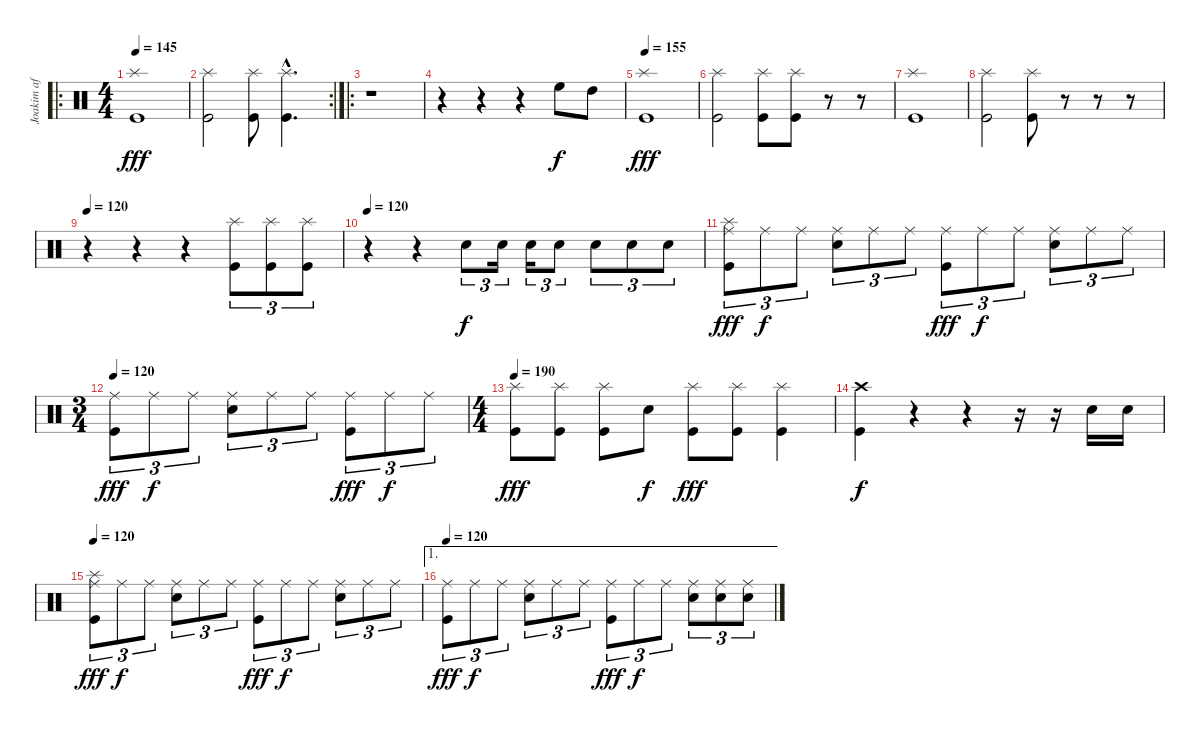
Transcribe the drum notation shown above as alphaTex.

\track ("Joakim af Grave" "Joakim af ") {instrument percussion}
\staff {score}
\articulation defaults
\ro
\ts (4 4)
\tempo 145
\clef neutral
\ks c
("Splash (hit)" "Kick (hit)").1{dy fff} |
\rc 2
("Splash (hit)" "Kick (hit)").2 ("Splash (hit)" "Kick (hit)").8 ("Splash (hit)"{hac} "Kick (hit)"{hac}).4{d} |
\ro
r.1 |
r.4 r.4 r.4 "High Floor Tom (hit)".8{dy f} "High Tom (hit)".8 |
\tempo 155
("Splash (hit)" "Kick (hit)").1{dy fff} |
("Splash (hit)" "Kick (hit)").2 ("Splash (hit)" "Kick (hit)").8 ("Splash (hit)" "Kick (hit)").8 r.8 r.8 |
("Splash (hit)" "Kick (hit)").1 |
("Splash (hit)" "Kick (hit)").2 ("Splash (hit)" "Kick (hit)").8 r.8 r.8 r.8 |
\tempo 120
r.4 r.4 r.4 ("Splash (hit)" "Kick (hit)").8{tu (3 2)} ("Splash (hit)" "Kick (hit)").8{tu (3 2)} ("Splash (hit)" "Kick (hit)").8{tu (3 2)} |
\tempo 120
r.4 r.4 "Electric Snare (hit)".8{tu (3 2) dy f} "Electric Snare (hit)".16{tu (3 2)} "Electric Snare (hit)".16{tu (3 2)} "Electric Snare (hit)".8{tu (3 2)} "Electric Snare (hit)".8{tu (3 2)} "Electric Snare (hit)".8{tu (3 2)} "Electric Snare (hit)".8{tu (3 2)} |
("Splash (hit)" "Ride (middle)" "Kick (hit)").8{tu (3 2) dy fff} "Ride (middle)".8{tu (3 2) dy f} "Ride (middle)".8{tu (3 2)} ("Electric Snare (hit)" "Ride (middle)").8{tu (3 2)} "Ride (middle)".8{tu (3 2)} "Ride (middle)".8{tu (3 2)} ("Ride (middle)" "Kick (hit)").8{tu (3 2) dy fff} "Ride (middle)".8{tu (3 2) dy f} "Ride (middle)".8{tu (3 2)} ("Electric Snare (hit)" "Ride (middle)").8{tu (3 2)} "Ride (middle)".8{tu (3 2)} "Ride (middle)".8{tu (3 2)} |
\ts (3 4)
\tempo 120
("Ride (middle)" "Kick (hit)").8{tu (3 2) dy fff} "Ride (middle)".8{tu (3 2) dy f} "Ride (middle)".8{tu (3 2)} ("Electric Snare (hit)" "Ride (middle)").8{tu (3 2)} "Ride (middle)".8{tu (3 2)} "Ride (middle)".8{tu (3 2)} ("Ride (middle)" "Kick (hit)").8{tu (3 2) dy fff} "Ride (middle)".8{tu (3 2) dy f} "Ride (middle)".8{tu (3 2)} |
\ts (4 4)
\tempo 190
("Splash (hit)" "Kick (hit)").8{dy fff} ("Splash (hit)" "Kick (hit)").8 ("Splash (hit)" "Kick (hit)").8 "Snare (hit)".8{dy f} ("Splash (hit)" "Kick (hit)").8{dy fff} ("Splash (hit)" "Kick (hit)").8 ("Splash (hit)" "Kick (hit)").4 |
("Crash high (hit)" "Kick (hit)").4{dy f} r.4 r.4 r.16 r.16 "Electric Snare (hit)".16 "Electric Snare (hit)".16 |
\tempo 120
("Splash (hit)" "Ride (middle)" "Kick (hit)").8{tu (3 2) dy fff} "Ride (middle)".8{tu (3 2) dy f} "Ride (middle)".8{tu (3 2)} ("Electric Snare (hit)" "Ride (middle)").8{tu (3 2)} "Ride (middle)".8{tu (3 2)} "Ride (middle)".8{tu (3 2)} ("Ride (middle)" "Kick (hit)").8{tu (3 2) dy fff} "Ride (middle)".8{tu (3 2) dy f} "Ride (middle)".8{tu (3 2)} ("Electric Snare (hit)" "Ride (middle)").8{tu (3 2)} "Ride (middle)".8{tu (3 2)} "Ride (middle)".8{tu (3 2)} |
\ae 1
\tempo 120
("Ride (middle)" "Kick (hit)").8{tu (3 2) dy fff} "Ride (middle)".8{tu (3 2) dy f} "Ride (middle)".8{tu (3 2)} ("Electric Snare (hit)" "Ride (middle)").8{tu (3 2)} "Ride (middle)".8{tu (3 2)} "Ride (middle)".8{tu (3 2)} ("Ride (middle)" "Kick (hit)").8{tu (3 2) dy fff} "Ride (middle)".8{tu (3 2) dy f} "Ride (middle)".8{tu (3 2)} ("Ride (middle)" "Electric Snare (hit)").8{tu (3 2)} ("Ride (middle)" "Electric Snare (hit)").8{tu (3 2)} ("Ride (middle)" "Electric Snare (hit)").8{tu (3 2)}
